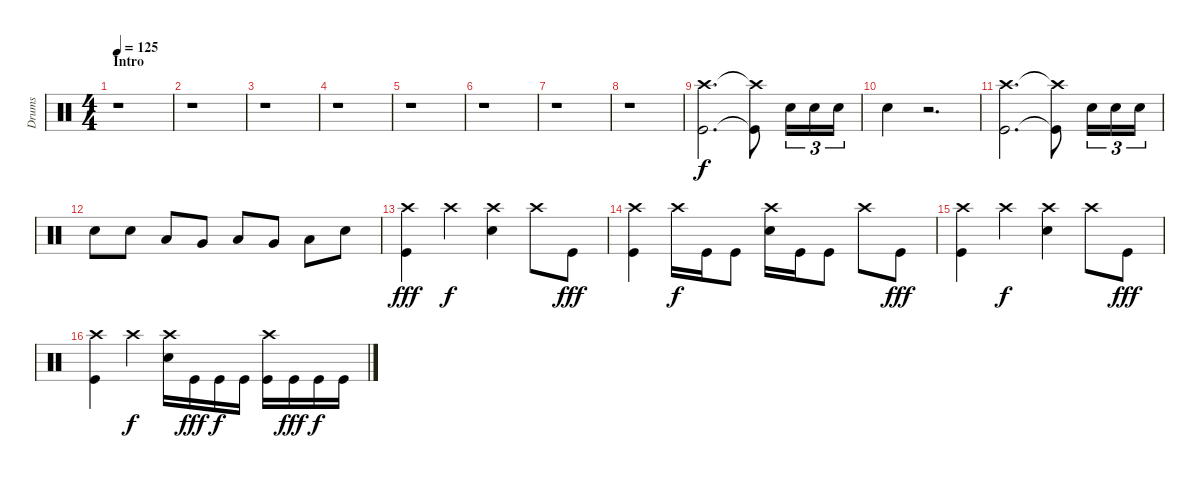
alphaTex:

\track ("Drums" "Drums") {instrument percussion}
\staff {score}
\articulation defaults
\ts (4 4)
\section ("" "Intro ")
\tempo 125
\clef neutral
\ks c
r.1{dy f} |
r.1 |
r.1 |
r.1 |
r.1 |
r.1 |
r.1 |
r.1 |
("Crash high (hit)" "Kick (hit)").2{d} ("Crash high (hit)"{t} "Kick (hit)"{t}).8 "Electric Snare (hit)".16{tu (3 2)} "Electric Snare (hit)".16{tu (3 2)} "Electric Snare (hit)".16{tu (3 2)} |
"Electric Snare (hit)".4 r.2{d} |
("Crash high (hit)" "Kick (hit)").2{d} ("Crash high (hit)"{t} "Kick (hit)"{t}).8 "Electric Snare (hit)".16{tu (3 2)} "Electric Snare (hit)".16{tu (3 2)} "Electric Snare (hit)".16{tu (3 2)} |
"Electric Snare (hit)".8 "Electric Snare (hit)".8 "Low Floor Tom (hit)".8 "Very Low Tom (hit)".8 "Low Tom (hit)".8 "Very Low Tom (hit)".8 "Low Floor Tom (hit)".8 "Electric Snare (hit)".8 |
("Crash high (hit)" "Kick (hit)").4{dy fff} "Crash high (hit)".4{dy f} ("Crash high (hit)" "Electric Snare (hit)").4 "Crash high (hit)".8 "Kick (hit)".8{dy fff} |
("Crash high (hit)" "Kick (hit)").4 "Crash high (hit)".16{dy f} "Kick (hit)".16 "Kick (hit)".8 ("Crash high (hit)" "Electric Snare (hit)").16 "Kick (hit)".16 "Kick (hit)".8 "Crash high (hit)".8 "Kick (hit)".8{dy fff} |
("Crash high (hit)" "Kick (hit)").4 "Crash high (hit)".4{dy f} ("Crash high (hit)" "Electric Snare (hit)").4 "Crash high (hit)".8 "Kick (hit)".8{dy fff} |
("Crash high (hit)" "Kick (hit)").4 "Crash high (hit)".4{dy f} ("Crash high (hit)" "Electric Snare (hit)").16 "Kick (hit)".16{dy fff} "Kick (hit)".16{dy f} "Kick (hit)".16 ("Crash high (hit)" "Kick (hit)").16 "Kick (hit)".16{dy fff} "Kick (hit)".16{dy f} "Kick (hit)".16
